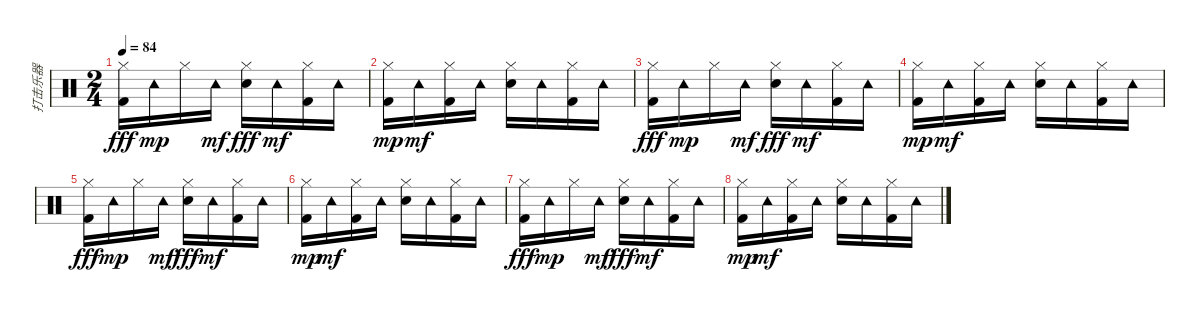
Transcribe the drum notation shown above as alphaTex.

\track ("打击乐器" "打击乐器") {instrument percussion}
\staff {score}
\articulation defaults
\ts (2 4)
\tempo 84
\clef neutral
\ks c
("Hi-Hat (closed)" "Kick (hit) 2").16{dy fff} "Tambourine (hit)".16{dy mp} "Hi-Hat (closed)".16 "Tambourine (hit)".16{dy mf} ("Hi-Hat (closed)" "Snare (hit) 2").16{dy fff} "Tambourine (hit)".16{dy mf} ("Hi-Hat (closed)" "Kick (hit) 2").16 "Tambourine (hit)".16 |
("Hi-Hat (closed)" "Kick (hit) 2").16{dy mp} "Tambourine (hit)".16{dy mf} ("Hi-Hat (closed)" "Kick (hit) 2").16 "Tambourine (hit)".16 ("Hi-Hat (closed)" "Snare (hit) 2").16 "Tambourine (hit)".16 ("Hi-Hat (closed)" "Kick (hit) 2").16 "Tambourine (hit)".16 |
("Hi-Hat (closed)" "Kick (hit) 2").16{dy fff} "Tambourine (hit)".16{dy mp} "Hi-Hat (closed)".16 "Tambourine (hit)".16{dy mf} ("Hi-Hat (closed)" "Snare (hit) 2").16{dy fff} "Tambourine (hit)".16{dy mf} ("Hi-Hat (closed)" "Kick (hit) 2").16 "Tambourine (hit)".16 |
("Hi-Hat (closed)" "Kick (hit) 2").16{dy mp} "Tambourine (hit)".16{dy mf} ("Hi-Hat (closed)" "Kick (hit) 2").16 "Tambourine (hit)".16 ("Hi-Hat (closed)" "Snare (hit) 2").16 "Tambourine (hit)".16 ("Hi-Hat (closed)" "Kick (hit) 2").16 "Tambourine (hit)".16 |
("Hi-Hat (closed)" "Kick (hit) 2").16{dy fff} "Tambourine (hit)".16{dy mp} "Hi-Hat (closed)".16 "Tambourine (hit)".16{dy mf} ("Hi-Hat (closed)" "Snare (hit) 2").16{dy fff} "Tambourine (hit)".16{dy mf} ("Hi-Hat (closed)" "Kick (hit) 2").16 "Tambourine (hit)".16 |
("Hi-Hat (closed)" "Kick (hit) 2").16{dy mp} "Tambourine (hit)".16{dy mf} ("Hi-Hat (closed)" "Kick (hit) 2").16 "Tambourine (hit)".16 ("Hi-Hat (closed)" "Snare (hit) 2").16 "Tambourine (hit)".16 ("Hi-Hat (closed)" "Kick (hit) 2").16 "Tambourine (hit)".16 |
("Hi-Hat (closed)" "Kick (hit) 2").16{dy fff} "Tambourine (hit)".16{dy mp} "Hi-Hat (closed)".16 "Tambourine (hit)".16{dy mf} ("Hi-Hat (closed)" "Snare (hit) 2").16{dy fff} "Tambourine (hit)".16{dy mf} ("Hi-Hat (closed)" "Kick (hit) 2").16 "Tambourine (hit)".16 |
("Hi-Hat (closed)" "Kick (hit) 2").16{dy mp} "Tambourine (hit)".16{dy mf} ("Hi-Hat (closed)" "Kick (hit) 2").16 "Tambourine (hit)".16 ("Hi-Hat (closed)" "Snare (hit) 2").16 "Tambourine (hit)".16 ("Hi-Hat (closed)" "Kick (hit) 2").16 "Tambourine (hit)".16
